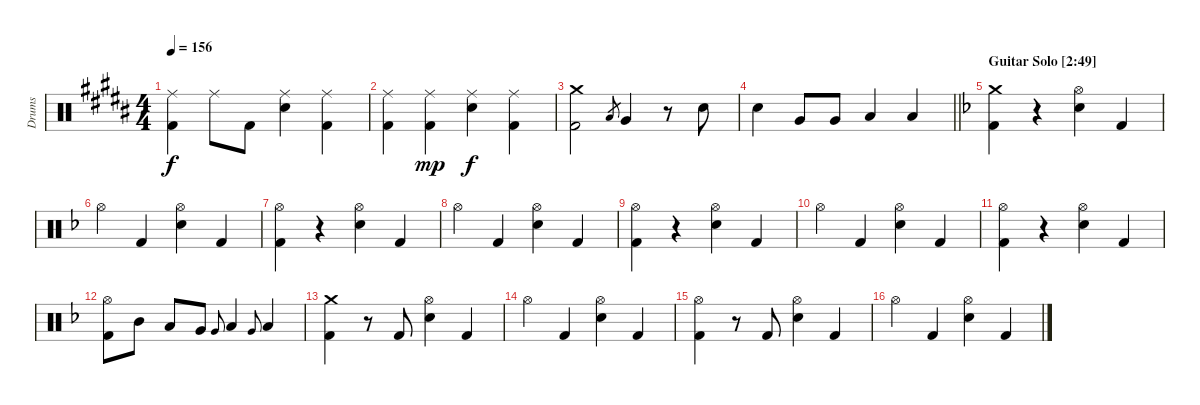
\track ("Drums" "Drums") {instrument percussion}
\staff {score}
\articulation defaults
\ts (4 4)
\tempo 156
\clef neutral
\ks g#minor
("Ride (middle)" "Kick (hit) 2").4{dy f} "Ride (middle)".8 "Kick (hit) 2".8 ("Ride (middle)" "Snare (hit) 2").4 ("Ride (middle)" "Kick (hit) 2").4 |
("Ride (middle)" "Kick (hit) 2").4 ("Ride (middle)" "Kick (hit) 2").4{dy mp} ("Ride (middle)" "Snare (hit) 2").4{dy f} ("Ride (middle)" "Kick (hit) 2").4 |
("Crash medium (hit)" "Kick (hit) 2").2 "Low Floor Tom (hit)".8{gr} "Very Low Tom (hit)".4 r.8 "Snare (hit) 2".8 |
\barLineRight lightlight "Snare (hit) 2".4 "Very Low Tom (hit)".8 "Very Low Tom (hit)".8 "Low Floor Tom (hit)".4 "Low Floor Tom (hit)".4
|
\section ("" "Guitar Solo [2:49]")
\ks dminor
("Crash medium (hit)" "Kick (hit) 2").4 r.4 ("Hi-Hat (open)" "Snare (hit) 2").4 "Kick (hit) 2".4 |
"Hi-Hat (open)".4 "Kick (hit) 2".4 ("Hi-Hat (open)" "Snare (hit) 2").4 "Kick (hit) 2".4 |
("Hi-Hat (open)" "Kick (hit) 2").4 r.4 ("Hi-Hat (open)" "Snare (hit) 2").4 "Kick (hit) 2".4 |
"Hi-Hat (open)".4 "Kick (hit) 2".4 ("Hi-Hat (open)" "Snare (hit) 2").4 "Kick (hit) 2".4 |
("Hi-Hat (open)" "Kick (hit) 2").4 r.4 ("Hi-Hat (open)" "Snare (hit) 2").4 "Kick (hit) 2".4 |
"Hi-Hat (open)".4 "Kick (hit) 2".4 ("Hi-Hat (open)" "Snare (hit) 2").4 "Kick (hit) 2".4 |
("Hi-Hat (open)" "Kick (hit) 2").4 r.4 ("Hi-Hat (open)" "Snare (hit) 2").4 "Kick (hit) 2".4 |
("Hi-Hat (open)" "Kick (hit) 2").8 "Mid Tom (hit)".8 "Low Tom (hit)".8 "Very Low Tom (hit)".8 "Very Low Tom (hit)".8{gr onbeat} "Low Floor Tom (hit)".4 "Very Low Tom (hit)".8{gr onbeat} "Low Floor Tom (hit)".4 |
("Crash medium (hit)" "Kick (hit) 2").4 r.8 "Kick (hit) 2".8 ("Hi-Hat (open)" "Snare (hit) 2").4 "Kick (hit) 2".4 |
"Hi-Hat (open)".4 "Kick (hit) 2".4 ("Hi-Hat (open)" "Snare (hit) 2").4 "Kick (hit) 2".4 |
("Hi-Hat (open)" "Kick (hit) 2").4 r.8 "Kick (hit) 2".8 ("Hi-Hat (open)" "Snare (hit) 2").4 "Kick (hit) 2".4 |
"Hi-Hat (open)".4 "Kick (hit) 2".4 ("Hi-Hat (open)" "Snare (hit) 2").4 "Kick (hit) 2".4
